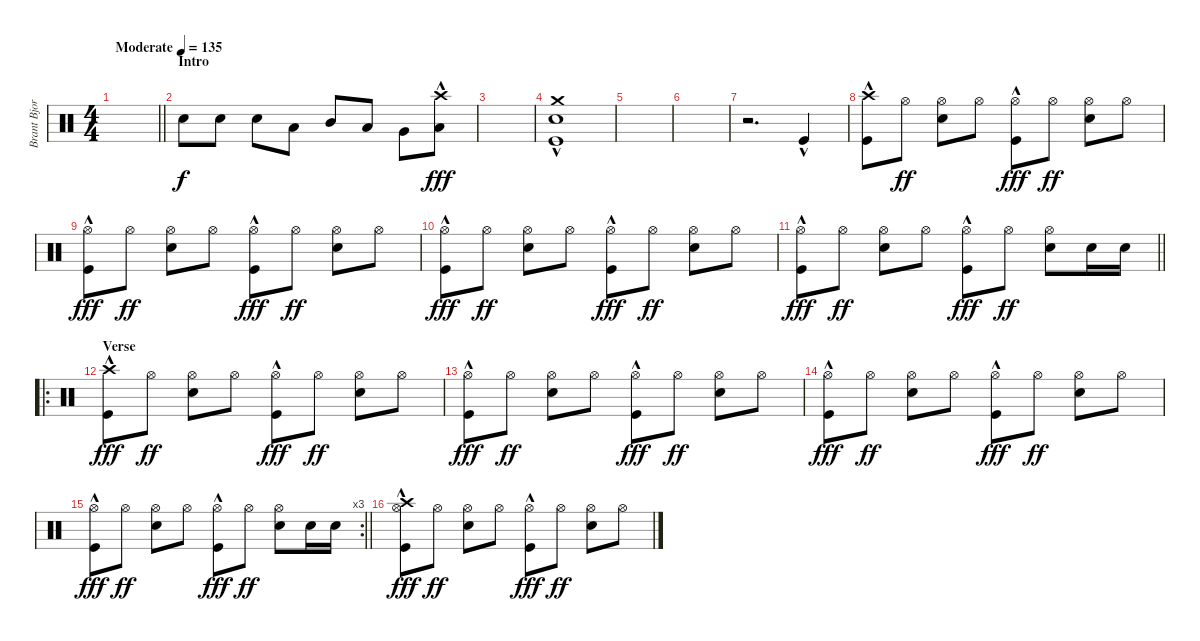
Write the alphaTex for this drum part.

\track ("Brant Bjork" "Brant Bjor") {instrument percussion}
\staff {score}
\articulation defaults
\ts (4 4)
\tempo (135 "Moderate")
\clef neutral
\barLineRight lightlight
\ks c
|
\section ("" "Intro")
"Snare (hit) 2".8 "Snare (hit) 2".8 "Snare (hit) 2".8 "Low Tom (hit)".8 "Mid Tom (hit)".8 "Low Tom (hit)".8 "Very Low Tom (hit)".8 ("Crash high (hit)"{hac} "Low Floor Tom (hit)").8{dy fff} |
|
("Crash medium (hit)" "Snare (hit) 2" "Kick (hit)"{hac}).1 |
|
|
r.2{d} "Kick (hit)"{hac}.4 |
("Crash high (hit)" "Kick (hit)"{hac}).8 "Hi-Hat (open)".8{dy ff} ("Hi-Hat (open)" "Snare (hit) 2").8 "Hi-Hat (open)".8 ("Hi-Hat (open)" "Kick (hit)"{hac}).8{dy fff} "Hi-Hat (open)".8{dy ff} ("Hi-Hat (open)" "Snare (hit) 2").8 "Hi-Hat (open)".8 |
("Hi-Hat (open)" "Kick (hit)"{hac}).8{dy fff} "Hi-Hat (open)".8{dy ff} ("Hi-Hat (open)" "Snare (hit) 2").8 "Hi-Hat (open)".8 ("Hi-Hat (open)" "Kick (hit)"{hac}).8{dy fff} "Hi-Hat (open)".8{dy ff} ("Hi-Hat (open)" "Snare (hit) 2").8 "Hi-Hat (open)".8 |
("Hi-Hat (open)" "Kick (hit)"{hac}).8{dy fff} "Hi-Hat (open)".8{dy ff} ("Hi-Hat (open)" "Snare (hit) 2").8 "Hi-Hat (open)".8 ("Hi-Hat (open)" "Kick (hit)"{hac}).8{dy fff} "Hi-Hat (open)".8{dy ff} ("Hi-Hat (open)" "Snare (hit) 2").8 "Hi-Hat (open)".8 |
\barLineRight lightlight
("Hi-Hat (open)" "Kick (hit)"{hac}).8{dy fff} "Hi-Hat (open)".8{dy ff} ("Hi-Hat (open)" "Snare (hit) 2").8 "Hi-Hat (open)".8 ("Hi-Hat (open)" "Kick (hit)"{hac}).8{dy fff} "Hi-Hat (open)".8{dy ff} ("Hi-Hat (open)" "Snare (hit) 2").8 "Snare (hit) 2".16 "Snare (hit) 2".16 |
\ro
\section ("" "Verse")
("Crash high (hit)" "Kick (hit)"{hac}).8{dy fff} "Hi-Hat (open)".8{dy ff} ("Hi-Hat (open)" "Snare (hit) 2").8 "Hi-Hat (open)".8 ("Hi-Hat (open)" "Kick (hit)"{hac}).8{dy fff} "Hi-Hat (open)".8{dy ff} ("Hi-Hat (open)" "Snare (hit) 2").8 "Hi-Hat (open)".8 |
("Hi-Hat (open)" "Kick (hit)"{hac}).8{dy fff} "Hi-Hat (open)".8{dy ff} ("Hi-Hat (open)" "Snare (hit) 2").8 "Hi-Hat (open)".8 ("Hi-Hat (open)" "Kick (hit)"{hac}).8{dy fff} "Hi-Hat (open)".8{dy ff} ("Hi-Hat (open)" "Snare (hit) 2").8 "Hi-Hat (open)".8 |
("Hi-Hat (open)" "Kick (hit)"{hac}).8{dy fff} "Hi-Hat (open)".8{dy ff} ("Hi-Hat (open)" "Snare (hit) 2").8 "Hi-Hat (open)".8 ("Hi-Hat (open)" "Kick (hit)"{hac}).8{dy fff} "Hi-Hat (open)".8{dy ff} ("Hi-Hat (open)" "Snare (hit) 2").8 "Hi-Hat (open)".8 |
\rc 3
\barLineRight lightlight
("Hi-Hat (open)" "Kick (hit)"{hac}).8{dy fff} "Hi-Hat (open)".8{dy ff} ("Hi-Hat (open)" "Snare (hit) 2").8 "Hi-Hat (open)".8 ("Hi-Hat (open)" "Kick (hit)"{hac}).8{dy fff} "Hi-Hat (open)".8{dy ff} ("Hi-Hat (open)" "Snare (hit) 2").8 "Snare (hit) 2".16 "Snare (hit) 2".16 |
("Hi-Hat (open)" "Crash high (hit)" "Kick (hit)"{hac}).8{dy fff} "Hi-Hat (open)".8{dy ff} ("Hi-Hat (open)" "Snare (hit) 2").8 "Hi-Hat (open)".8 ("Hi-Hat (open)" "Kick (hit)"{hac}).8{dy fff} "Hi-Hat (open)".8{dy ff} ("Hi-Hat (open)" "Snare (hit) 2").8 "Hi-Hat (open)".8
